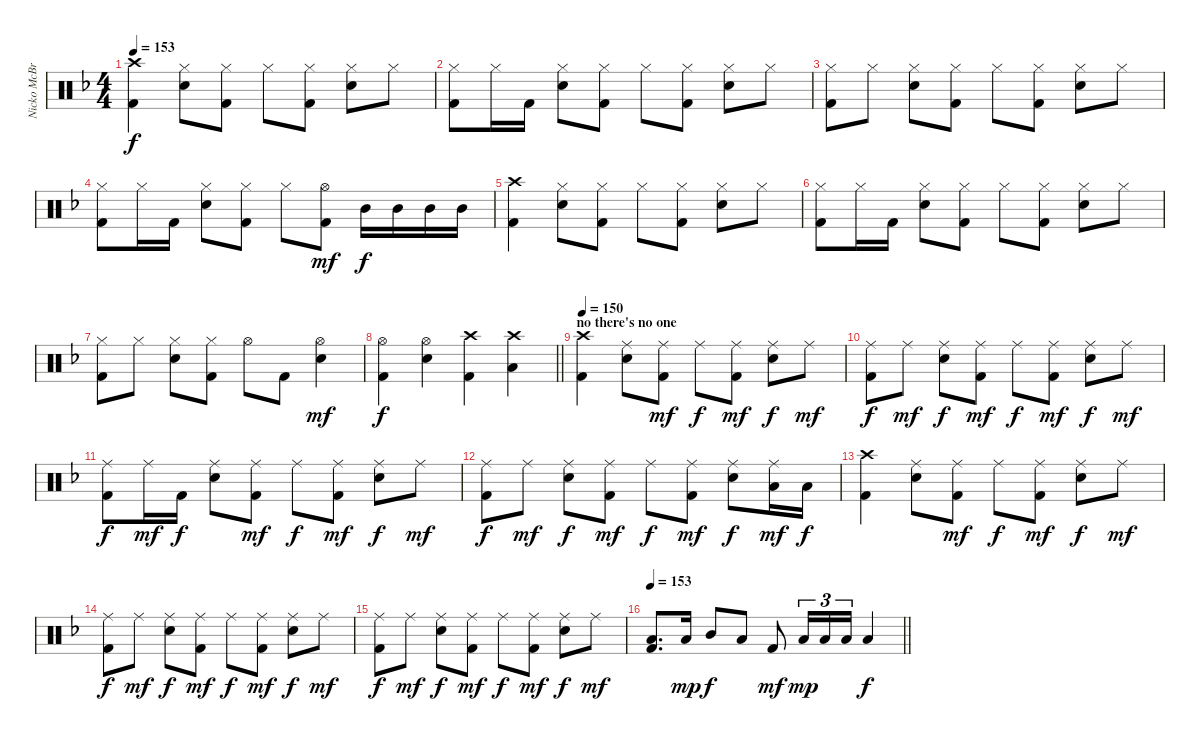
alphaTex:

\track ("Nicko McBrain" "Nicko McBr") {instrument percussion}
\staff {score}
\articulation defaults
\ts (4 4)
\tempo 153
\clef neutral
\ks f
("Crash high (hit)" "Kick (hit) 2").4{dy f} ("Hi-Hat (closed)" "Electric Snare (hit)").8 ("Hi-Hat (closed)" "Kick (hit) 2").8 "Hi-Hat (closed)".8 ("Hi-Hat (closed)" "Kick (hit) 2").8 ("Hi-Hat (closed)" "Electric Snare (hit)").8 "Hi-Hat (closed)".8 |
("Hi-Hat (closed)" "Kick (hit) 2").8 "Hi-Hat (closed)".16 "Kick (hit) 2".16 ("Hi-Hat (closed)" "Electric Snare (hit)").8 ("Hi-Hat (closed)" "Kick (hit) 2").8 "Hi-Hat (closed)".8 ("Hi-Hat (closed)" "Kick (hit) 2").8 ("Hi-Hat (closed)" "Electric Snare (hit)").8 "Hi-Hat (closed)".8 |
("Hi-Hat (closed)" "Kick (hit) 2").8 "Hi-Hat (closed)".8 ("Hi-Hat (closed)" "Electric Snare (hit)").8 ("Hi-Hat (closed)" "Kick (hit) 2").8 "Hi-Hat (closed)".8 ("Hi-Hat (closed)" "Kick (hit) 2").8 ("Hi-Hat (closed)" "Electric Snare (hit)").8 "Hi-Hat (closed)".8 |
("Hi-Hat (closed)" "Kick (hit) 2").8 "Hi-Hat (closed)".16 "Kick (hit) 2".16 ("Hi-Hat (closed)" "Electric Snare (hit)").8 ("Hi-Hat (closed)" "Kick (hit) 2").8 "Hi-Hat (closed)".8 ("Hi-Hat (open)" "Kick (hit) 2").8{dy mf} "Mid Tom (hit)".16{dy f} "Mid Tom (hit)".16 "Mid Tom (hit)".16 "Mid Tom (hit)".16 |
("Crash high (hit)" "Kick (hit) 2").4 ("Hi-Hat (closed)" "Electric Snare (hit)").8 ("Hi-Hat (closed)" "Kick (hit) 2").8 "Hi-Hat (closed)".8 ("Hi-Hat (closed)" "Kick (hit) 2").8 ("Hi-Hat (closed)" "Electric Snare (hit)").8 "Hi-Hat (closed)".8 |
("Hi-Hat (closed)" "Kick (hit) 2").8 "Hi-Hat (closed)".16 "Kick (hit) 2".16 ("Hi-Hat (closed)" "Electric Snare (hit)").8 ("Hi-Hat (closed)" "Kick (hit) 2").8 "Hi-Hat (closed)".8 ("Hi-Hat (closed)" "Kick (hit) 2").8 ("Hi-Hat (closed)" "Electric Snare (hit)").8 "Hi-Hat (closed)".8 |
("Hi-Hat (closed)" "Kick (hit) 2").8 "Hi-Hat (closed)".8 ("Hi-Hat (closed)" "Electric Snare (hit)").8 ("Hi-Hat (closed)" "Kick (hit) 2").8 "Hi-Hat (open)".8 "Kick (hit) 2".8 ("Hi-Hat (open)" "Electric Snare (hit)").4{dy mf} |
\barLineRight lightlight
("Hi-Hat (open)" "Kick (hit) 2").4{dy f} ("Hi-Hat (open)" "Electric Snare (hit)").4 ("Crash high (hit)" "Kick (hit) 2").4 ("Crash high (hit)" "Low Tom (hit)").4 |
\section ("" "no there's no one")
\tempo 150
("Crash high (hit)" "Kick (hit) 2").4 ("Ride (middle)" "Electric Snare (hit)").8 ("Ride (middle)" "Kick (hit) 2").8{dy mf} "Ride (middle)".8{dy f} ("Ride (middle)" "Kick (hit) 2").8{dy mf} ("Ride (middle)" "Electric Snare (hit)").8{dy f} "Ride (middle)".8{dy mf} |
("Ride (middle)" "Kick (hit) 2").8{dy f} "Ride (middle)".8{dy mf} ("Ride (middle)" "Electric Snare (hit)").8{dy f} ("Ride (middle)" "Kick (hit) 2").8{dy mf} "Ride (middle)".8{dy f} ("Ride (middle)" "Kick (hit) 2").8{dy mf} ("Ride (middle)" "Electric Snare (hit)").8{dy f} "Ride (middle)".8{dy mf} |
("Ride (middle)" "Kick (hit) 2").8{dy f} "Ride (middle)".16{dy mf} "Kick (hit) 2".16{dy f} ("Ride (middle)" "Electric Snare (hit)").8 ("Ride (middle)" "Kick (hit) 2").8{dy mf} "Ride (middle)".8{dy f} ("Ride (middle)" "Kick (hit) 2").8{dy mf} ("Ride (middle)" "Electric Snare (hit)").8{dy f} "Ride (middle)".8{dy mf} |
("Ride (middle)" "Kick (hit) 2").8{dy f} "Ride (middle)".8{dy mf} ("Ride (middle)" "Electric Snare (hit)").8{dy f} ("Ride (middle)" "Kick (hit) 2").8{dy mf} "Ride (middle)".8{dy f} ("Ride (middle)" "Kick (hit) 2").8{dy mf} ("Ride (middle)" "Electric Snare (hit)").8{dy f} ("Ride (middle)" "Low Tom (hit)").16{dy mf} "Low Tom (hit)".16{dy f} |
("Crash high (hit)" "Kick (hit) 2").4 ("Ride (middle)" "Electric Snare (hit)").8 ("Ride (middle)" "Kick (hit) 2").8{dy mf} "Ride (middle)".8{dy f} ("Ride (middle)" "Kick (hit) 2").8{dy mf} ("Ride (middle)" "Electric Snare (hit)").8{dy f} "Ride (middle)".8{dy mf} |
("Ride (middle)" "Kick (hit) 2").8{dy f} "Ride (middle)".8{dy mf} ("Ride (middle)" "Electric Snare (hit)").8{dy f} ("Ride (middle)" "Kick (hit) 2").8{dy mf} "Ride (middle)".8{dy f} ("Ride (middle)" "Kick (hit) 2").8{dy mf} ("Ride (middle)" "Electric Snare (hit)").8{dy f} "Ride (middle)".8{dy mf} |
("Ride (middle)" "Kick (hit) 2").8{dy f} "Ride (middle)".8{dy mf} ("Ride (middle)" "Electric Snare (hit)").8{dy f} ("Ride (middle)" "Kick (hit) 2").8{dy mf} "Ride (middle)".8{dy f} ("Ride (middle)" "Kick (hit) 2").8{dy mf} ("Ride (middle)" "Electric Snare (hit)").8{dy f} "Ride (middle)".8{dy mf} |
\tempo 153
\barLineRight lightlight
("Low Tom (hit)" "Kick (hit) 2").8{d} "Low Tom (hit)".16{dy mp} "Mid Tom (hit)".8{dy f} "Low Tom (hit)".8 "Kick (hit) 2".8{dy mf} "Low Tom (hit)".16{tu (3 2) dy mp} "Low Tom (hit)".16{tu (3 2)} "Low Tom (hit)".16{tu (3 2)} "Low Tom (hit)".4{dy f}
